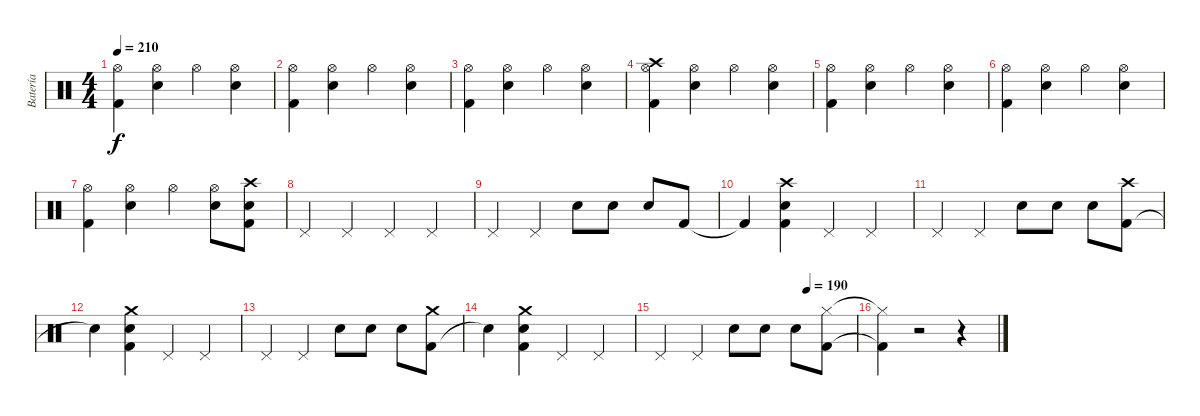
\track ("Batería" "Batería") {instrument percussion}
\staff {score}
\articulation defaults
\ts (4 4)
\tempo 210
\clef neutral
\ks c
("Hi-Hat (open)" "Kick (hit) 2").4{dy f} ("Hi-Hat (open)" "Electric Snare (hit)").4 "Hi-Hat (open)".4 ("Hi-Hat (open)" "Electric Snare (hit)").4 |
("Hi-Hat (open)" "Kick (hit) 2").4 ("Hi-Hat (open)" "Electric Snare (hit)").4 "Hi-Hat (open)".4 ("Hi-Hat (open)" "Electric Snare (hit)").4 |
("Hi-Hat (open)" "Kick (hit) 2").4 ("Hi-Hat (open)" "Electric Snare (hit)").4 "Hi-Hat (open)".4 ("Hi-Hat (open)" "Electric Snare (hit)").4 |
("Hi-Hat (open)" "Kick (hit) 2" "Crash high (hit)").4 ("Hi-Hat (open)" "Electric Snare (hit)").4 "Hi-Hat (open)".4 ("Hi-Hat (open)" "Electric Snare (hit)").4 |
("Hi-Hat (open)" "Kick (hit) 2").4 ("Hi-Hat (open)" "Electric Snare (hit)").4 "Hi-Hat (open)".4 ("Hi-Hat (open)" "Electric Snare (hit)").4 |
("Hi-Hat (open)" "Kick (hit) 2").4 ("Hi-Hat (open)" "Electric Snare (hit)").4 "Hi-Hat (open)".4 ("Hi-Hat (open)" "Electric Snare (hit)").4 |
("Hi-Hat (open)" "Kick (hit) 2").4 ("Hi-Hat (open)" "Electric Snare (hit)").4 "Hi-Hat (open)".4 ("Hi-Hat (open)" "Electric Snare (hit)").8 ("Kick (hit) 2" "Electric Snare (hit)" "Crash high (hit)").8 |
"Pedal Hi-Hat (hit)".4 "Pedal Hi-Hat (hit)".4 "Pedal Hi-Hat (hit)".4 "Pedal Hi-Hat (hit)".4 |
"Pedal Hi-Hat (hit)".4 "Pedal Hi-Hat (hit)".4 "Electric Snare (hit)".8 "Electric Snare (hit)".8 "Electric Snare (hit)".8 "Kick (hit) 2".8 |
"Kick (hit) 2"{t}.4 ("Kick (hit) 2" "Crash high (hit)" "Electric Snare (hit)").4 "Pedal Hi-Hat (hit)".4 "Pedal Hi-Hat (hit)".4 |
"Pedal Hi-Hat (hit)".4 "Pedal Hi-Hat (hit)".4 "Electric Snare (hit)".8 "Electric Snare (hit)".8 "Electric Snare (hit)".8 ("Kick (hit) 2" "Crash high (hit)").8 |
"Snare (hit)"{t}.4 ("Kick (hit) 2" "Crash medium (hit)" "Electric Snare (hit)").4 "Pedal Hi-Hat (hit)".4 "Pedal Hi-Hat (hit)".4 |
"Pedal Hi-Hat (hit)".4 "Pedal Hi-Hat (hit)".4 "Electric Snare (hit)".8 "Electric Snare (hit)".8 "Electric Snare (hit)".8 ("Kick (hit) 2" "Crash medium (hit)").8 |
"Snare (hit)"{t}.4 ("Kick (hit) 2" "Crash medium (hit)" "Electric Snare (hit)").4 "Pedal Hi-Hat (hit)".4 "Pedal Hi-Hat (hit)".4 |
\tempo (190 0.75)
"Pedal Hi-Hat (hit)".4 "Pedal Hi-Hat (hit)".4 "Electric Snare (hit)".8 "Electric Snare (hit)".8 "Electric Snare (hit)".8 ("Kick (hit) 2" "Hi-Hat (closed)").8 |
("Kick (hit) 2"{t} "Hi-Hat (closed)"{t}).4 r.2 r.4
